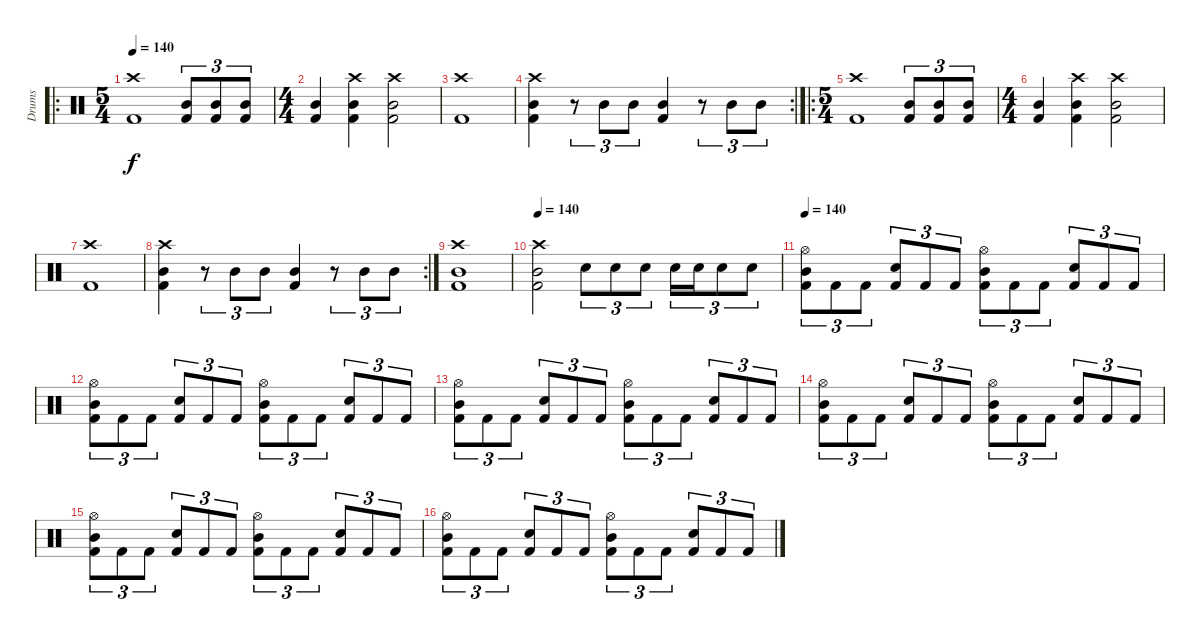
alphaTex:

\track ("Drums" "Drums") {instrument percussion}
\staff {score}
\articulation defaults
\ro
\ts (5 4)
\tempo 140
\tempo 135
\tempo 140
\clef neutral
\ks c
("Crash high (hit)" "Kick (hit) 2").1{dy f} ("Mid Tom (hit)" "Kick (hit) 2").8{tu (3 2)} ("Mid Tom (hit)" "Kick (hit) 2").8{tu (3 2)} ("Mid Tom (hit)" "Kick (hit) 2").8{tu (3 2)} |
\ts (4 4)
("Mid Tom (hit)" "Kick (hit) 2").4 ("Crash high (hit)" "Mid Tom (hit)" "Kick (hit) 2").4 ("Crash high (hit)" "Mid Tom (hit)" "Kick (hit) 2").2 |
("Crash high (hit)" "Kick (hit) 2").1 |
\rc 2
("Crash high (hit)" "Mid Tom (hit)" "Kick (hit) 2").4 r.8{tu (3 2)} "Mid Tom (hit)".8{tu (3 2)} "Mid Tom (hit)".8{tu (3 2)} ("Mid Tom (hit)" "Kick (hit) 2").4 r.8{tu (3 2)} "Mid Tom (hit)".8{tu (3 2)} "Mid Tom (hit)".8{tu (3 2)} |
\ro
\ts (5 4)
("Crash high (hit)" "Kick (hit) 2").1 ("Mid Tom (hit)" "Kick (hit) 2").8{tu (3 2)} ("Mid Tom (hit)" "Kick (hit) 2").8{tu (3 2)} ("Mid Tom (hit)" "Kick (hit) 2").8{tu (3 2)} |
\ts (4 4)
("Mid Tom (hit)" "Kick (hit) 2").4 ("Crash high (hit)" "Mid Tom (hit)" "Kick (hit) 2").4 ("Crash high (hit)" "Mid Tom (hit)" "Kick (hit) 2").2 |
("Crash high (hit)" "Kick (hit) 2").1 |
\rc 2
("Crash high (hit)" "Mid Tom (hit)" "Kick (hit) 2").4 r.8{tu (3 2)} "Mid Tom (hit)".8{tu (3 2)} "Mid Tom (hit)".8{tu (3 2)} ("Mid Tom (hit)" "Kick (hit) 2").4 r.8{tu (3 2)} "Mid Tom (hit)".8{tu (3 2)} "Mid Tom (hit)".8{tu (3 2)} |
("Crash high (hit)" "Mid Tom (hit)" "Kick (hit) 2").1 |
\tempo 140
("Crash high (hit)" "Mid Tom (hit)" "Kick (hit) 2").2 "Electric Snare (hit)".8{tu (3 2)} "Electric Snare (hit)".8{tu (3 2)} "Electric Snare (hit)".8{tu (3 2)} "Electric Snare (hit)".16{tu (3 2)} "Electric Snare (hit)".16{tu (3 2)} "Electric Snare (hit)".8{tu (3 2)} "Electric Snare (hit)".8{tu (3 2)} |
\tempo 140
("Hi-Hat (open)" "Mid Tom (hit)" "Kick (hit) 2").8{tu (3 2)} "Kick (hit) 2".8{tu (3 2)} "Kick (hit) 2".8{tu (3 2)} ("Electric Snare (hit)" "Kick (hit) 2").8{tu (3 2)} "Kick (hit) 2".8{tu (3 2)} "Kick (hit) 2".8{tu (3 2)} ("Hi-Hat (open)" "Mid Tom (hit)" "Kick (hit) 2").8{tu (3 2)} "Kick (hit) 2".8{tu (3 2)} "Kick (hit) 2".8{tu (3 2)} ("Electric Snare (hit)" "Kick (hit) 2").8{tu (3 2)} "Kick (hit) 2".8{tu (3 2)} "Kick (hit) 2".8{tu (3 2)} |
("Hi-Hat (open)" "Mid Tom (hit)" "Kick (hit) 2").8{tu (3 2)} "Kick (hit) 2".8{tu (3 2)} "Kick (hit) 2".8{tu (3 2)} ("Electric Snare (hit)" "Kick (hit) 2").8{tu (3 2)} "Kick (hit) 2".8{tu (3 2)} "Kick (hit) 2".8{tu (3 2)} ("Hi-Hat (open)" "Mid Tom (hit)" "Kick (hit) 2").8{tu (3 2)} "Kick (hit) 2".8{tu (3 2)} "Kick (hit) 2".8{tu (3 2)} ("Electric Snare (hit)" "Kick (hit) 2").8{tu (3 2)} "Kick (hit) 2".8{tu (3 2)} "Kick (hit) 2".8{tu (3 2)} |
("Hi-Hat (open)" "Mid Tom (hit)" "Kick (hit) 2").8{tu (3 2)} "Kick (hit) 2".8{tu (3 2)} "Kick (hit) 2".8{tu (3 2)} ("Electric Snare (hit)" "Kick (hit) 2").8{tu (3 2)} "Kick (hit) 2".8{tu (3 2)} "Kick (hit) 2".8{tu (3 2)} ("Hi-Hat (open)" "Mid Tom (hit)" "Kick (hit) 2").8{tu (3 2)} "Kick (hit) 2".8{tu (3 2)} "Kick (hit) 2".8{tu (3 2)} ("Electric Snare (hit)" "Kick (hit) 2").8{tu (3 2)} "Kick (hit) 2".8{tu (3 2)} "Kick (hit) 2".8{tu (3 2)} |
("Hi-Hat (open)" "Mid Tom (hit)" "Kick (hit) 2").8{tu (3 2)} "Kick (hit) 2".8{tu (3 2)} "Kick (hit) 2".8{tu (3 2)} ("Electric Snare (hit)" "Kick (hit) 2").8{tu (3 2)} "Kick (hit) 2".8{tu (3 2)} "Kick (hit) 2".8{tu (3 2)} ("Hi-Hat (open)" "Mid Tom (hit)" "Kick (hit) 2").8{tu (3 2)} "Kick (hit) 2".8{tu (3 2)} "Kick (hit) 2".8{tu (3 2)} ("Electric Snare (hit)" "Kick (hit) 2").8{tu (3 2)} "Kick (hit) 2".8{tu (3 2)} "Kick (hit) 2".8{tu (3 2)} |
("Hi-Hat (open)" "Mid Tom (hit)" "Kick (hit) 2").8{tu (3 2)} "Kick (hit) 2".8{tu (3 2)} "Kick (hit) 2".8{tu (3 2)} ("Electric Snare (hit)" "Kick (hit) 2").8{tu (3 2)} "Kick (hit) 2".8{tu (3 2)} "Kick (hit) 2".8{tu (3 2)} ("Hi-Hat (open)" "Mid Tom (hit)" "Kick (hit) 2").8{tu (3 2)} "Kick (hit) 2".8{tu (3 2)} "Kick (hit) 2".8{tu (3 2)} ("Electric Snare (hit)" "Kick (hit) 2").8{tu (3 2)} "Kick (hit) 2".8{tu (3 2)} "Kick (hit) 2".8{tu (3 2)} |
("Hi-Hat (open)" "Mid Tom (hit)" "Kick (hit) 2").8{tu (3 2)} "Kick (hit) 2".8{tu (3 2)} "Kick (hit) 2".8{tu (3 2)} ("Electric Snare (hit)" "Kick (hit) 2").8{tu (3 2)} "Kick (hit) 2".8{tu (3 2)} "Kick (hit) 2".8{tu (3 2)} ("Hi-Hat (open)" "Mid Tom (hit)" "Kick (hit) 2").8{tu (3 2)} "Kick (hit) 2".8{tu (3 2)} "Kick (hit) 2".8{tu (3 2)} ("Electric Snare (hit)" "Kick (hit) 2").8{tu (3 2)} "Kick (hit) 2".8{tu (3 2)} "Kick (hit) 2".8{tu (3 2)}
